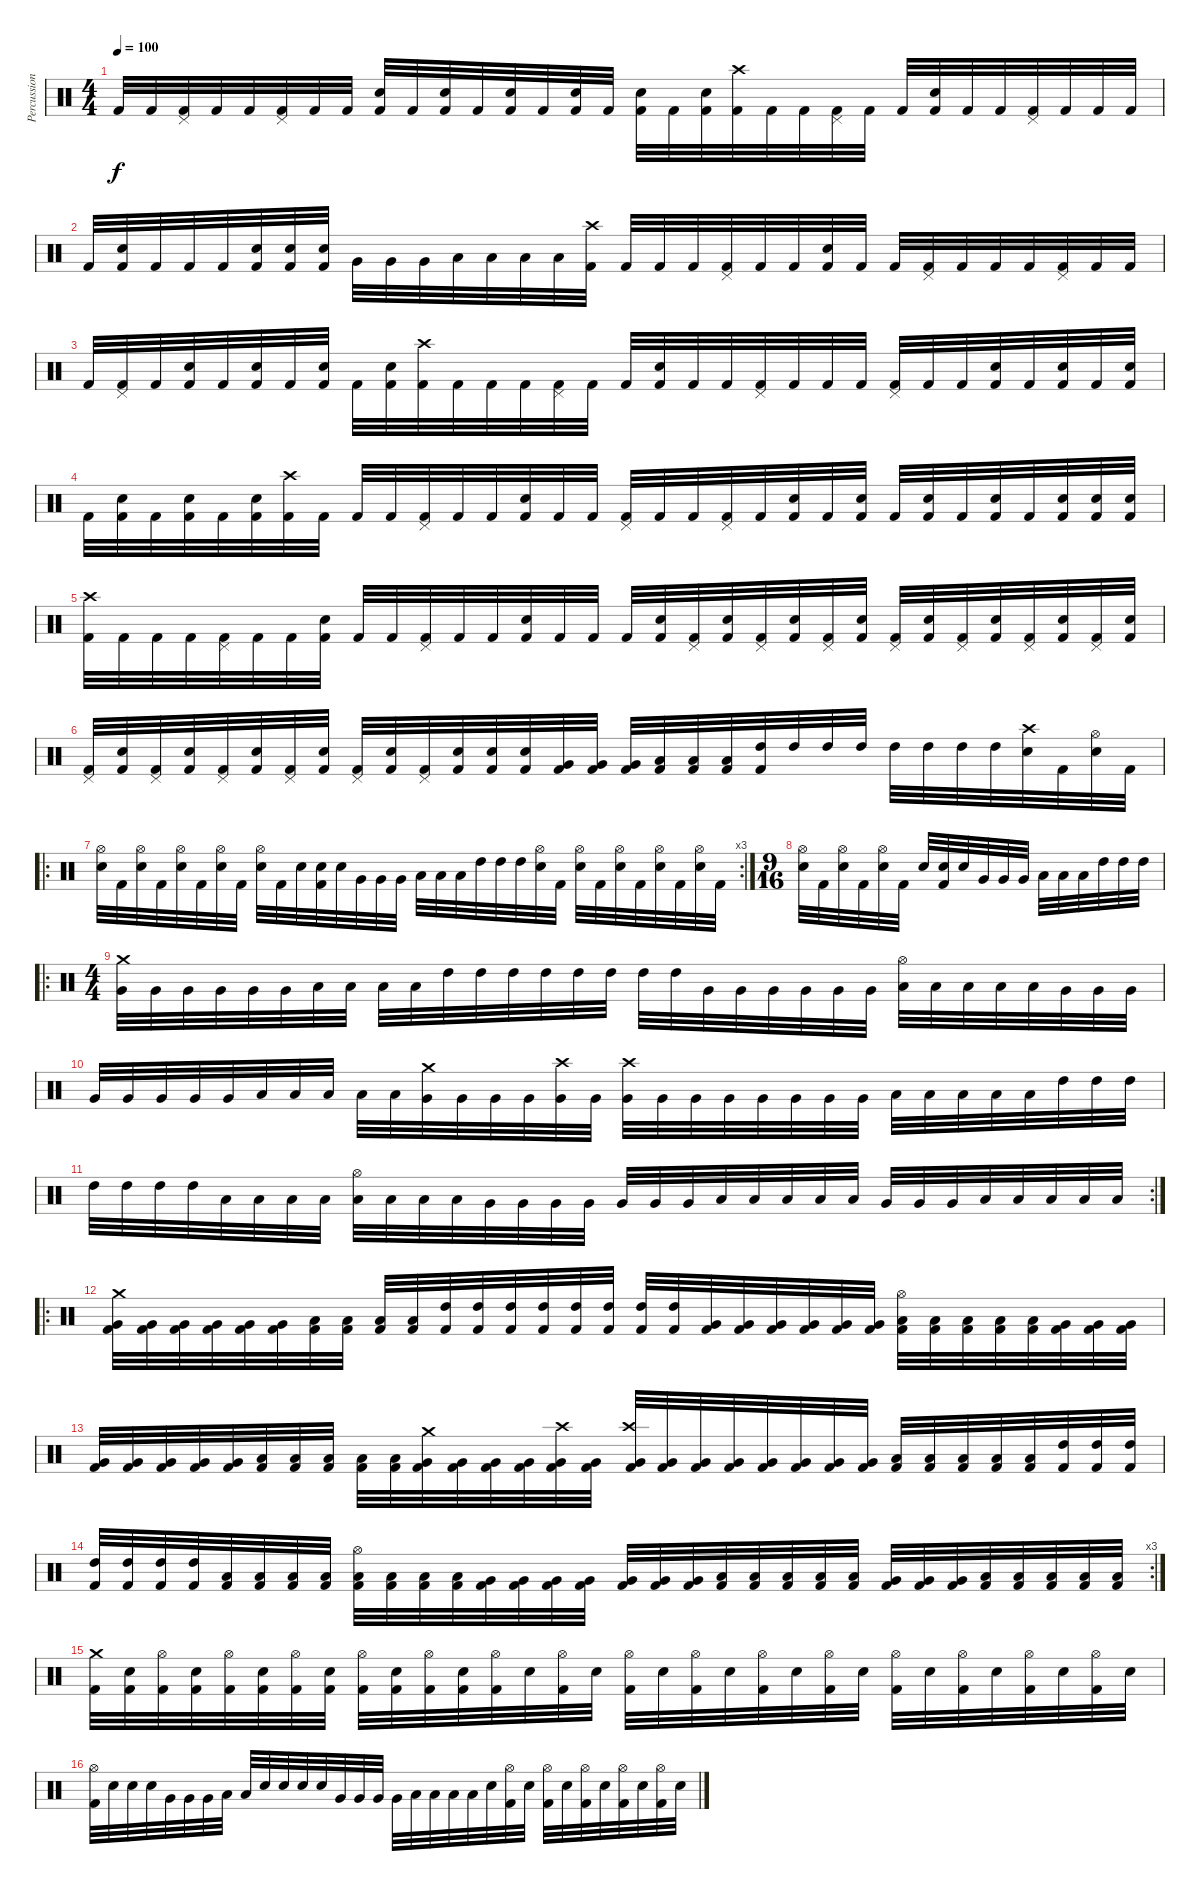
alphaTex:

\track ("Percussion" "Percussion") {instrument percussion}
\staff {score}
\articulation defaults
\ts (4 4)
\tempo 100
\clef neutral
\ks c "Kick (hit) 2".32{dy f} "Kick (hit) 2".32
("Pedal Hi-Hat (hit)" "Kick (hit) 2").32 "Kick (hit) 2".32 "Kick (hit) 2".32 ("Pedal Hi-Hat (hit)" "Kick (hit) 2").32 "Kick (hit) 2".32 "Kick (hit) 2".32 ("Electric Snare (hit)" "Kick (hit) 2").32 "Kick (hit) 2".32 ("Electric Snare (hit)" "Kick (hit) 2").32 "Kick (hit) 2".32 ("Electric Snare (hit)" "Kick (hit) 2").32 "Kick (hit) 2".32 ("Electric Snare (hit)" "Kick (hit) 2").32 "Kick (hit) 2".32 ("Electric Snare (hit)" "Kick (hit) 2").32 "Kick (hit) 2".32 ("Electric Snare (hit)" "Kick (hit) 2").32 ("Crash high (hit)" "Kick (hit) 2").32 "Kick (hit) 2".32 "Kick (hit) 2".32 ("Pedal Hi-Hat (hit)" "Kick (hit) 2").32 "Kick (hit) 2".32 "Kick (hit) 2".32 ("Electric Snare (hit)" "Kick (hit) 2").32 "Kick (hit) 2".32 "Kick (hit) 2".32 ("Pedal Hi-Hat (hit)" "Kick (hit) 2").32 "Kick (hit) 2".32 "Kick (hit) 2".32 "Kick (hit) 2".32 |
"Kick (hit) 2".32 ("Electric Snare (hit)" "Kick (hit) 2").32 "Kick (hit) 2".32 "Kick (hit) 2".32 "Kick (hit) 2".32 ("Electric Snare (hit)" "Kick (hit) 2").32 ("Electric Snare (hit)" "Kick (hit) 2").32 ("Electric Snare (hit)" "Kick (hit) 2").32 "Very Low Tom (hit)".32 "Very Low Tom (hit)".32 "Very Low Tom (hit)".32 "Low Tom (hit)".32 "Low Tom (hit)".32 "Low Tom (hit)".32 "Low Tom (hit)".32 ("Crash high (hit)" "Kick (hit) 2").32 "Kick (hit) 2".32 "Kick (hit) 2".32 "Kick (hit) 2".32 ("Pedal Hi-Hat (hit)" "Kick (hit) 2").32 "Kick (hit) 2".32 "Kick (hit) 2".32 ("Electric Snare (hit)" "Kick (hit) 2").32 "Kick (hit) 2".32 "Kick (hit) 2".32 ("Pedal Hi-Hat (hit)" "Kick (hit) 2").32 "Kick (hit) 2".32 "Kick (hit) 2".32 "Kick (hit) 2".32 ("Pedal Hi-Hat (hit)" "Kick (hit) 2").32 "Kick (hit) 2".32 "Kick (hit) 2".32 |
"Kick (hit) 2".32 ("Pedal Hi-Hat (hit)" "Kick (hit) 2").32 "Kick (hit) 2".32 ("Electric Snare (hit)" "Kick (hit) 2").32 "Kick (hit) 2".32 ("Electric Snare (hit)" "Kick (hit) 2").32 "Kick (hit) 2".32 ("Electric Snare (hit)" "Kick (hit) 2").32 "Kick (hit) 2".32 ("Electric Snare (hit)" "Kick (hit) 2").32 ("Crash high (hit)" "Kick (hit) 2").32 "Kick (hit) 2".32 "Kick (hit) 2".32 "Kick (hit) 2".32 ("Pedal Hi-Hat (hit)" "Kick (hit) 2").32 "Kick (hit) 2".32 "Kick (hit) 2".32 ("Electric Snare (hit)" "Kick (hit) 2").32 "Kick (hit) 2".32 "Kick (hit) 2".32 ("Pedal Hi-Hat (hit)" "Kick (hit) 2").32 "Kick (hit) 2".32 "Kick (hit) 2".32 "Kick (hit) 2".32 ("Pedal Hi-Hat (hit)" "Kick (hit) 2").32 "Kick (hit) 2".32 "Kick (hit) 2".32 ("Electric Snare (hit)" "Kick (hit) 2").32 "Kick (hit) 2".32 ("Electric Snare (hit)" "Kick (hit) 2").32 "Kick (hit) 2".32 ("Electric Snare (hit)" "Kick (hit) 2").32 |
"Kick (hit) 2".32 ("Electric Snare (hit)" "Kick (hit) 2").32 "Kick (hit) 2".32 ("Electric Snare (hit)" "Kick (hit) 2").32 "Kick (hit) 2".32 ("Electric Snare (hit)" "Kick (hit) 2").32 ("Crash high (hit)" "Kick (hit) 2").32 "Kick (hit) 2".32 "Kick (hit) 2".32 "Kick (hit) 2".32 ("Pedal Hi-Hat (hit)" "Kick (hit) 2").32 "Kick (hit) 2".32 "Kick (hit) 2".32 ("Electric Snare (hit)" "Kick (hit) 2").32 "Kick (hit) 2".32 "Kick (hit) 2".32 ("Pedal Hi-Hat (hit)" "Kick (hit) 2").32 "Kick (hit) 2".32 "Kick (hit) 2".32 ("Pedal Hi-Hat (hit)" "Kick (hit) 2").32 "Kick (hit) 2".32 ("Electric Snare (hit)" "Kick (hit) 2").32 "Kick (hit) 2".32 ("Electric Snare (hit)" "Kick (hit) 2").32 "Kick (hit) 2".32 ("Electric Snare (hit)" "Kick (hit) 2").32 "Kick (hit) 2".32 ("Electric Snare (hit)" "Kick (hit) 2").32 "Kick (hit) 2".32 ("Electric Snare (hit)" "Kick (hit) 2").32 ("Electric Snare (hit)" "Kick (hit) 2").32 ("Electric Snare (hit)" "Kick (hit) 2").32 |
("Crash high (hit)" "Kick (hit) 2").32 "Kick (hit) 2".32 "Kick (hit) 2".32 "Kick (hit) 2".32 ("Pedal Hi-Hat (hit)" "Kick (hit) 2").32 "Kick (hit) 2".32 "Kick (hit) 2".32 ("Electric Snare (hit)" "Kick (hit) 2").32 "Kick (hit) 2".32 "Kick (hit) 2".32 ("Pedal Hi-Hat (hit)" "Kick (hit) 2").32 "Kick (hit) 2".32 "Kick (hit) 2".32 ("Electric Snare (hit)" "Kick (hit) 2").32 "Kick (hit) 2".32 "Kick (hit) 2".32 "Kick (hit) 2".32 ("Electric Snare (hit)" "Kick (hit) 2").32 ("Pedal Hi-Hat (hit)" "Kick (hit) 2").32 ("Electric Snare (hit)" "Kick (hit) 2").32 ("Pedal Hi-Hat (hit)" "Kick (hit) 2").32 ("Electric Snare (hit)" "Kick (hit) 2").32 ("Pedal Hi-Hat (hit)" "Kick (hit) 2").32 ("Electric Snare (hit)" "Kick (hit) 2").32 ("Pedal Hi-Hat (hit)" "Kick (hit) 2").32 ("Electric Snare (hit)" "Kick (hit) 2").32 ("Pedal Hi-Hat (hit)" "Kick (hit) 2").32 ("Electric Snare (hit)" "Kick (hit) 2").32 ("Pedal Hi-Hat (hit)" "Kick (hit) 2").32 ("Electric Snare (hit)" "Kick (hit) 2").32 ("Pedal Hi-Hat (hit)" "Kick (hit) 2").32 ("Electric Snare (hit)" "Kick (hit) 2").32 |
("Pedal Hi-Hat (hit)" "Kick (hit) 2").32 ("Electric Snare (hit)" "Kick (hit) 2").32 ("Pedal Hi-Hat (hit)" "Kick (hit) 2").32 ("Electric Snare (hit)" "Kick (hit) 2").32 ("Pedal Hi-Hat (hit)" "Kick (hit) 2").32 ("Electric Snare (hit)" "Kick (hit) 2").32 ("Pedal Hi-Hat (hit)" "Kick (hit) 2").32 ("Electric Snare (hit)" "Kick (hit) 2").32 ("Pedal Hi-Hat (hit)" "Kick (hit) 2").32 ("Electric Snare (hit)" "Kick (hit) 2").32 ("Pedal Hi-Hat (hit)" "Kick (hit) 2").32 ("Electric Snare (hit)" "Kick (hit) 2").32 ("Electric Snare (hit)" "Kick (hit) 2").32 ("Electric Snare (hit)" "Kick (hit) 2").32 ("Very Low Tom (hit)" "Kick (hit) 2").32 ("Very Low Tom (hit)" "Kick (hit) 2").32 ("Very Low Tom (hit)" "Kick (hit) 2").32 ("Low Tom (hit)" "Kick (hit) 2").32 ("Low Tom (hit)" "Kick (hit) 2").32 ("Low Tom (hit)" "Kick (hit) 2").32 ("High Tom (hit)" "Kick (hit) 2").32 "High Tom (hit)".32 "High Tom (hit)".32 "High Tom (hit)".32 "High Tom (hit)".32 "High Tom (hit)".32 "High Tom (hit)".32 "High Tom (hit)".32 ("Crash high (hit)" "Electric Snare (hit)").32 "Kick (hit) 2".32 ("Hi-Hat (open)" "Electric Snare (hit)").32 "Kick (hit) 2".32 |
\ro
\rc 3
("Hi-Hat (open)" "Electric Snare (hit)").32 "Kick (hit) 2".32 ("Hi-Hat (open)" "Electric Snare (hit)").32 "Kick (hit) 2".32 ("Hi-Hat (open)" "Electric Snare (hit)").32 "Kick (hit) 2".32 ("Hi-Hat (open)" "Electric Snare (hit)").32 "Kick (hit) 2".32 ("Hi-Hat (open)" "Electric Snare (hit)").32 "Kick (hit) 2".32 "Electric Snare (hit)".32 ("Electric Snare (hit)" "Kick (hit) 2").32 "Electric Snare (hit)".32 "Very Low Tom (hit)".32 "Very Low Tom (hit)".32 "Very Low Tom (hit)".32 "Low Tom (hit)".32 "Low Tom (hit)".32 "Low Tom (hit)".32 "High Tom (hit)".32 "High Tom (hit)".32 "High Tom (hit)".32 ("Hi-Hat (open)" "Electric Snare (hit)").32 "Kick (hit) 2".32 ("Hi-Hat (open)" "Electric Snare (hit)").32 "Kick (hit) 2".32 ("Hi-Hat (open)" "Electric Snare (hit)").32 "Kick (hit) 2".32 ("Hi-Hat (open)" "Electric Snare (hit)").32 "Kick (hit) 2".32 ("Hi-Hat (open)" "Electric Snare (hit)").32 "Kick (hit) 2".32 |
\ts (9 16)
("Hi-Hat (open)" "Electric Snare (hit)").32 "Kick (hit) 2".32 ("Hi-Hat (open)" "Electric Snare (hit)").32 "Kick (hit) 2".32 ("Hi-Hat (open)" "Electric Snare (hit)").32 "Kick (hit) 2".32 "Electric Snare (hit)".32 ("Electric Snare (hit)" "Kick (hit) 2").32 "Electric Snare (hit)".32 "Very Low Tom (hit)".32 "Very Low Tom (hit)".32 "Very Low Tom (hit)".32 "Low Tom (hit)".32 "Low Tom (hit)".32 "Low Tom (hit)".32 "High Tom (hit)".32 "High Tom (hit)".32 "High Tom (hit)".32 |
\ro
\ts (4 4)
("Crash medium (hit)" "Very Low Tom (hit)").32 "Very Low Tom (hit)".32 "Very Low Tom (hit)".32 "Very Low Tom (hit)".32 "Very Low Tom (hit)".32 "Very Low Tom (hit)".32 "Low Tom (hit)".32 "Low Tom (hit)".32 "Low Tom (hit)".32 "Low Tom (hit)".32 "High Tom (hit)".32 "High Tom (hit)".32 "High Tom (hit)".32 "High Tom (hit)".32 "High Tom (hit)".32 "High Tom (hit)".32 "High Tom (hit)".32 "High Tom (hit)".32 "Very Low Tom (hit)".32 "Very Low Tom (hit)".32 "Very Low Tom (hit)".32 "Very Low Tom (hit)".32 "Very Low Tom (hit)".32 "Very Low Tom (hit)".32 ("Hi-Hat (open)" "Low Tom (hit)").32 "Low Tom (hit)".32 "Low Tom (hit)".32 "Low Tom (hit)".32 "Low Tom (hit)".32 "Very Low Tom (hit)".32 "Very Low Tom (hit)".32 "Very Low Tom (hit)".32 |
"Very Low Tom (hit)".32 "Very Low Tom (hit)".32 "Very Low Tom (hit)".32 "Very Low Tom (hit)".32 "Very Low Tom (hit)".32 "Low Tom (hit)".32 "Low Tom (hit)".32 "Low Tom (hit)".32 "Low Tom (hit)".32 "Low Tom (hit)".32 ("Crash medium (hit)" "Very Low Tom (hit)").32 "Very Low Tom (hit)".32 "Very Low Tom (hit)".32 "Very Low Tom (hit)".32 ("Crash high (hit)" "Very Low Tom (hit)").32 "Very Low Tom (hit)".32 ("Crash high (hit)" "Very Low Tom (hit)").32 "Very Low Tom (hit)".32 "Very Low Tom (hit)".32 "Very Low Tom (hit)".32 "Very Low Tom (hit)".32 "Very Low Tom (hit)".32 "Very Low Tom (hit)".32 "Very Low Tom (hit)".32 "Low Tom (hit)".32 "Low Tom (hit)".32 "Low Tom (hit)".32 "Low Tom (hit)".32 "Low Tom (hit)".32 "High Tom (hit)".32 "High Tom (hit)".32 "High Tom (hit)".32 |
\rc 2 "High Tom (hit)".32 "High Tom (hit)".32 "High Tom (hit)".32 "High Tom (hit)".32 "Low Tom (hit)".32 "Low Tom (hit)".32 "Low Tom (hit)".32 "Low Tom (hit)".32
("Hi-Hat (open)" "Low Tom (hit)").32 "Low Tom (hit)".32 "Low Tom (hit)".32 "Low Tom (hit)".32 "Very Low Tom (hit)".32 "Very Low Tom (hit)".32 "Very Low Tom (hit)".32 "Very Low Tom (hit)".32 "Very Low Tom (hit)".32 "Very Low Tom (hit)".32 "Very Low Tom (hit)".32 "Low Tom (hit)".32 "Low Tom (hit)".32 "Low Tom (hit)".32 "Low Tom (hit)".32 "Low Tom (hit)".32 "Very Low Tom (hit)".32 "Very Low Tom (hit)".32 "Very Low Tom (hit)".32 "Low Tom (hit)".32 "Low Tom (hit)".32 "Low Tom (hit)".32 "Low Tom (hit)".32 "Low Tom (hit)".32 |
\ro
("Crash medium (hit)" "Very Low Tom (hit)" "Kick (hit) 2").32 ("Very Low Tom (hit)" "Kick (hit) 2").32 ("Very Low Tom (hit)" "Kick (hit) 2").32 ("Very Low Tom (hit)" "Kick (hit) 2").32 ("Very Low Tom (hit)" "Kick (hit) 2").32 ("Very Low Tom (hit)" "Kick (hit) 2").32 ("Low Tom (hit)" "Kick (hit) 2").32 ("Low Tom (hit)" "Kick (hit) 2").32 ("Low Tom (hit)" "Kick (hit) 2").32 ("Low Tom (hit)" "Kick (hit) 2").32 ("High Tom (hit)" "Kick (hit) 2").32 ("High Tom (hit)" "Kick (hit) 2").32 ("High Tom (hit)" "Kick (hit) 2").32 ("High Tom (hit)" "Kick (hit) 2").32 ("High Tom (hit)" "Kick (hit) 2").32 ("High Tom (hit)" "Kick (hit) 2").32 ("High Tom (hit)" "Kick (hit) 2").32 ("High Tom (hit)" "Kick (hit) 2").32 ("Very Low Tom (hit)" "Kick (hit) 2").32 ("Very Low Tom (hit)" "Kick (hit) 2").32 ("Very Low Tom (hit)" "Kick (hit) 2").32 ("Very Low Tom (hit)" "Kick (hit) 2").32 ("Very Low Tom (hit)" "Kick (hit) 2").32 ("Very Low Tom (hit)" "Kick (hit) 2").32 ("Hi-Hat (open)" "Low Tom (hit)" "Kick (hit) 2").32 ("Low Tom (hit)" "Kick (hit) 2").32 ("Low Tom (hit)" "Kick (hit) 2").32 ("Low Tom (hit)" "Kick (hit) 2").32 ("Low Tom (hit)" "Kick (hit) 2").32 ("Very Low Tom (hit)" "Kick (hit) 2").32 ("Very Low Tom (hit)" "Kick (hit) 2").32 ("Very Low Tom (hit)" "Kick (hit) 2").32 |
("Very Low Tom (hit)" "Kick (hit) 2").32 ("Very Low Tom (hit)" "Kick (hit) 2").32 ("Very Low Tom (hit)" "Kick (hit) 2").32 ("Very Low Tom (hit)" "Kick (hit) 2").32 ("Very Low Tom (hit)" "Kick (hit) 2").32 ("Low Tom (hit)" "Kick (hit) 2").32 ("Low Tom (hit)" "Kick (hit) 2").32 ("Low Tom (hit)" "Kick (hit) 2").32 ("Low Tom (hit)" "Kick (hit) 2").32 ("Low Tom (hit)" "Kick (hit) 2").32 ("Crash medium (hit)" "Very Low Tom (hit)" "Kick (hit) 2").32 ("Very Low Tom (hit)" "Kick (hit) 2").32 ("Very Low Tom (hit)" "Kick (hit) 2").32 ("Very Low Tom (hit)" "Kick (hit) 2").32 ("Crash high (hit)" "Very Low Tom (hit)" "Kick (hit) 2").32 ("Very Low Tom (hit)" "Kick (hit) 2").32 ("Crash high (hit)" "Very Low Tom (hit)" "Kick (hit) 2").32 ("Very Low Tom (hit)" "Kick (hit) 2").32 ("Very Low Tom (hit)" "Kick (hit) 2").32 ("Very Low Tom (hit)" "Kick (hit) 2").32 ("Very Low Tom (hit)" "Kick (hit) 2").32 ("Very Low Tom (hit)" "Kick (hit) 2").32 ("Very Low Tom (hit)" "Kick (hit) 2").32 ("Very Low Tom (hit)" "Kick (hit) 2").32 ("Low Tom (hit)" "Kick (hit) 2").32 ("Low Tom (hit)" "Kick (hit) 2").32 ("Low Tom (hit)" "Kick (hit) 2").32 ("Low Tom (hit)" "Kick (hit) 2").32 ("Low Tom (hit)" "Kick (hit) 2").32 ("High Tom (hit)" "Kick (hit) 2").32 ("High Tom (hit)" "Kick (hit) 2").32 ("High Tom (hit)" "Kick (hit) 2").32 |
\rc 3
("High Tom (hit)" "Kick (hit) 2").32 ("High Tom (hit)" "Kick (hit) 2").32 ("High Tom (hit)" "Kick (hit) 2").32 ("High Tom (hit)" "Kick (hit) 2").32 ("Low Tom (hit)" "Kick (hit) 2").32 ("Low Tom (hit)" "Kick (hit) 2").32 ("Low Tom (hit)" "Kick (hit) 2").32 ("Low Tom (hit)" "Kick (hit) 2").32 ("Hi-Hat (open)" "Low Tom (hit)" "Kick (hit) 2").32 ("Low Tom (hit)" "Kick (hit) 2").32 ("Low Tom (hit)" "Kick (hit) 2").32 ("Low Tom (hit)" "Kick (hit) 2").32 ("Very Low Tom (hit)" "Kick (hit) 2").32 ("Very Low Tom (hit)" "Kick (hit) 2").32 ("Very Low Tom (hit)" "Kick (hit) 2").32 ("Very Low Tom (hit)" "Kick (hit) 2").32 ("Very Low Tom (hit)" "Kick (hit) 2").32 ("Very Low Tom (hit)" "Kick (hit) 2").32 ("Very Low Tom (hit)" "Kick (hit) 2").32 ("Low Tom (hit)" "Kick (hit) 2").32 ("Low Tom (hit)" "Kick (hit) 2").32 ("Low Tom (hit)" "Kick (hit) 2").32 ("Low Tom (hit)" "Kick (hit) 2").32 ("Low Tom (hit)" "Kick (hit) 2").32 ("Very Low Tom (hit)" "Kick (hit) 2").32 ("Very Low Tom (hit)" "Kick (hit) 2").32 ("Very Low Tom (hit)" "Kick (hit) 2").32 ("Low Tom (hit)" "Kick (hit) 2").32 ("Low Tom (hit)" "Kick (hit) 2").32 ("Low Tom (hit)" "Kick (hit) 2").32 ("Low Tom (hit)" "Kick (hit) 2").32 ("Low Tom (hit)" "Kick (hit) 2").32 |
("Crash medium (hit)" "Kick (hit) 2").32 ("Electric Snare (hit)" "Kick (hit) 2").32 ("Hi-Hat (open)" "Kick (hit) 2").32 ("Electric Snare (hit)" "Kick (hit) 2").32 ("Hi-Hat (open)" "Kick (hit) 2").32 ("Electric Snare (hit)" "Kick (hit) 2").32 ("Hi-Hat (open)" "Kick (hit) 2").32 ("Electric Snare (hit)" "Kick (hit) 2").32 ("Hi-Hat (open)" "Kick (hit) 2").32 ("Electric Snare (hit)" "Kick (hit) 2").32 ("Hi-Hat (open)" "Kick (hit) 2").32 ("Electric Snare (hit)" "Kick (hit) 2").32 ("Hi-Hat (open)" "Kick (hit) 2").32 "Electric Snare (hit)".32 ("Hi-Hat (open)" "Kick (hit) 2").32 "Electric Snare (hit)".32 ("Hi-Hat (open)" "Kick (hit) 2").32 "Electric Snare (hit)".32 ("Hi-Hat (open)" "Kick (hit) 2").32 "Electric Snare (hit)".32 ("Hi-Hat (open)" "Kick (hit) 2").32 "Electric Snare (hit)".32 ("Hi-Hat (open)" "Kick (hit) 2").32 "Electric Snare (hit)".32 ("Hi-Hat (open)" "Kick (hit) 2").32 "Electric Snare (hit)".32 ("Hi-Hat (open)" "Kick (hit) 2").32 "Electric Snare (hit)".32 ("Hi-Hat (open)" "Kick (hit) 2").32 "Electric Snare (hit)".32 ("Hi-Hat (open)" "Kick (hit) 2").32 "Electric Snare (hit)".32 |
("Hi-Hat (open)" "Kick (hit) 2").32 "Electric Snare (hit)".32 "Electric Snare (hit)".32 "Electric Snare (hit)".32 "Very Low Tom (hit)".32 "Very Low Tom (hit)".32 "Very Low Tom (hit)".32 "Low Tom (hit)".32 "Low Tom (hit)".32 "Electric Snare (hit)".32 "Electric Snare (hit)".32 "Electric Snare (hit)".32 "Electric Snare (hit)".32 "Very Low Tom (hit)".32 "Very Low Tom (hit)".32 "Very Low Tom (hit)".32 "Very Low Tom (hit)".32 "Low Tom (hit)".32 "Low Tom (hit)".32 "Low Tom (hit)".32 "Low Tom (hit)".32 "Electric Snare (hit)".32 ("Hi-Hat (open)" "Kick (hit) 2").32 "Electric Snare (hit)".32 ("Hi-Hat (open)" "Kick (hit) 2").32 "Electric Snare (hit)".32 ("Hi-Hat (open)" "Kick (hit) 2").32 "Electric Snare (hit)".32 ("Hi-Hat (open)" "Kick (hit) 2").32 "Electric Snare (hit)".32 ("Hi-Hat (open)" "Kick (hit) 2").32 "Electric Snare (hit)".32
